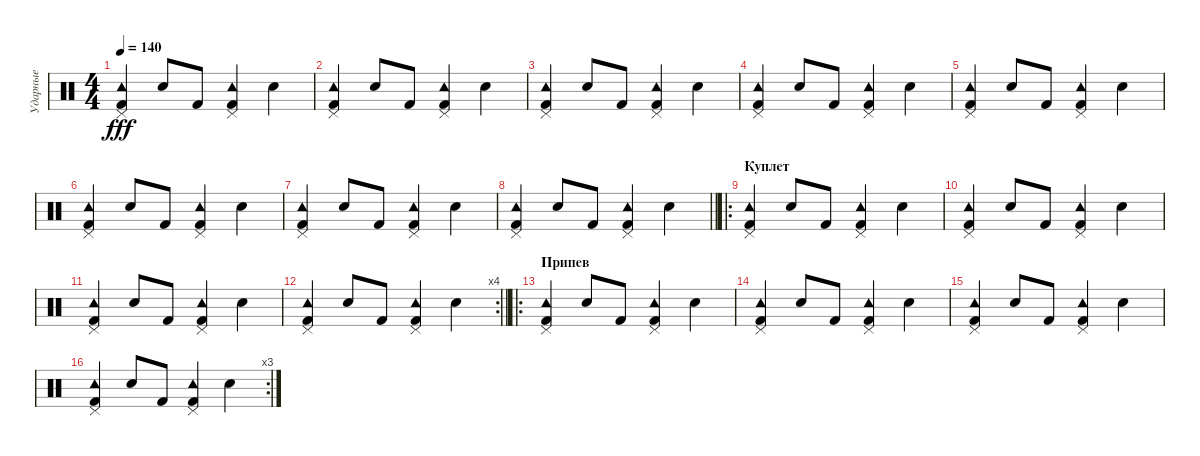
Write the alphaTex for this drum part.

\track ("Ударные" "Ударные") {instrument percussion}
\staff {score}
\articulation defaults
\ts (4 4)
\tempo 140
\clef neutral
\ks c
("Tambourine (hit)" "Pedal Hi-Hat (hit)" "Kick (hit) 2").4{dy fff} "Electric Snare (hit)".8 "Kick (hit) 2".8 ("Tambourine (hit)" "Pedal Hi-Hat (hit)" "Kick (hit) 2").4 "Electric Snare (hit)".4 |
("Tambourine (hit)" "Pedal Hi-Hat (hit)" "Kick (hit) 2").4 "Electric Snare (hit)".8 "Kick (hit) 2".8 ("Tambourine (hit)" "Pedal Hi-Hat (hit)" "Kick (hit) 2").4 "Electric Snare (hit)".4 |
("Tambourine (hit)" "Pedal Hi-Hat (hit)" "Kick (hit) 2").4 "Electric Snare (hit)".8 "Kick (hit) 2".8 ("Tambourine (hit)" "Pedal Hi-Hat (hit)" "Kick (hit) 2").4 "Electric Snare (hit)".4 |
("Tambourine (hit)" "Pedal Hi-Hat (hit)" "Kick (hit) 2").4 "Electric Snare (hit)".8 "Kick (hit) 2".8 ("Tambourine (hit)" "Pedal Hi-Hat (hit)" "Kick (hit) 2").4 "Electric Snare (hit)".4 |
("Tambourine (hit)" "Pedal Hi-Hat (hit)" "Kick (hit) 2").4 "Electric Snare (hit)".8 "Kick (hit) 2".8 ("Tambourine (hit)" "Pedal Hi-Hat (hit)" "Kick (hit) 2").4 "Electric Snare (hit)".4 |
("Tambourine (hit)" "Pedal Hi-Hat (hit)" "Kick (hit) 2").4 "Electric Snare (hit)".8 "Kick (hit) 2".8 ("Tambourine (hit)" "Pedal Hi-Hat (hit)" "Kick (hit) 2").4 "Electric Snare (hit)".4 |
("Tambourine (hit)" "Pedal Hi-Hat (hit)" "Kick (hit) 2").4 "Electric Snare (hit)".8 "Kick (hit) 2".8 ("Tambourine (hit)" "Pedal Hi-Hat (hit)" "Kick (hit) 2").4 "Electric Snare (hit)".4 |
\barLineRight lightlight
("Tambourine (hit)" "Pedal Hi-Hat (hit)" "Kick (hit) 2").4 "Electric Snare (hit)".8 "Kick (hit) 2".8 ("Tambourine (hit)" "Pedal Hi-Hat (hit)" "Kick (hit) 2").4 "Electric Snare (hit)".4 |
\ro
\section ("" "Куплет")
("Tambourine (hit)" "Pedal Hi-Hat (hit)" "Kick (hit) 2").4 "Electric Snare (hit)".8 "Kick (hit) 2".8 ("Tambourine (hit)" "Pedal Hi-Hat (hit)" "Kick (hit) 2").4 "Electric Snare (hit)".4 |
("Tambourine (hit)" "Pedal Hi-Hat (hit)" "Kick (hit) 2").4 "Electric Snare (hit)".8 "Kick (hit) 2".8 ("Tambourine (hit)" "Pedal Hi-Hat (hit)" "Kick (hit) 2").4 "Electric Snare (hit)".4 |
("Tambourine (hit)" "Pedal Hi-Hat (hit)" "Kick (hit) 2").4 "Electric Snare (hit)".8 "Kick (hit) 2".8 ("Tambourine (hit)" "Pedal Hi-Hat (hit)" "Kick (hit) 2").4 "Electric Snare (hit)".4 |
\rc 4
\barLineRight lightlight
("Tambourine (hit)" "Pedal Hi-Hat (hit)" "Kick (hit) 2").4 "Electric Snare (hit)".8 "Kick (hit) 2".8 ("Tambourine (hit)" "Pedal Hi-Hat (hit)" "Kick (hit) 2").4 "Electric Snare (hit)".4 |
\ro
\section ("" "Припев")
("Tambourine (hit)" "Pedal Hi-Hat (hit)" "Kick (hit) 2").4 "Electric Snare (hit)".8 "Kick (hit) 2".8 ("Tambourine (hit)" "Pedal Hi-Hat (hit)" "Kick (hit) 2").4 "Electric Snare (hit)".4 |
("Tambourine (hit)" "Pedal Hi-Hat (hit)" "Kick (hit) 2").4 "Electric Snare (hit)".8 "Kick (hit) 2".8 ("Tambourine (hit)" "Pedal Hi-Hat (hit)" "Kick (hit) 2").4 "Electric Snare (hit)".4 |
("Tambourine (hit)" "Pedal Hi-Hat (hit)" "Kick (hit) 2").4 "Electric Snare (hit)".8 "Kick (hit) 2".8 ("Tambourine (hit)" "Pedal Hi-Hat (hit)" "Kick (hit) 2").4 "Electric Snare (hit)".4 |
\rc 3
("Tambourine (hit)" "Pedal Hi-Hat (hit)" "Kick (hit) 2").4 "Electric Snare (hit)".8 "Kick (hit) 2".8 ("Tambourine (hit)" "Pedal Hi-Hat (hit)" "Kick (hit) 2").4 "Electric Snare (hit)".4
